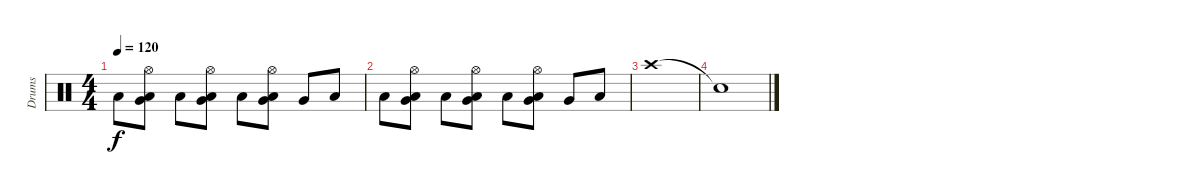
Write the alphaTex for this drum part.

\track ("Drums" "Drums") {instrument percussion}
\staff {score}
\articulation defaults
\ts (4 4)
\tempo 120
\clef neutral
\ks c "Low Floor Tom (hit)".8{dy f}
("Hi-Hat (open)" "Low Tom (hit)" "Very Low Tom (hit)").8 "Low Floor Tom (hit)".8 ("Hi-Hat (open)" "Low Tom (hit)" "Very Low Tom (hit)").8 "Low Floor Tom (hit)".8 ("Hi-Hat (open)" "Low Tom (hit)" "Very Low Tom (hit)").8 "Very Low Tom (hit)".8 "Low Floor Tom (hit)".8 |
"Low Floor Tom (hit)".8 ("Hi-Hat (open)" "Low Tom (hit)" "Very Low Tom (hit)").8 "Low Floor Tom (hit)".8 ("Hi-Hat (open)" "Low Tom (hit)" "Very Low Tom (hit)").8 "Low Floor Tom (hit)".8 ("Hi-Hat (open)" "Low Tom (hit)" "Very Low Tom (hit)").8 "Very Low Tom (hit)".8 "Low Floor Tom (hit)".8 |
"Crash high (hit)".1 |
"Snare (hit)"{t}.1
